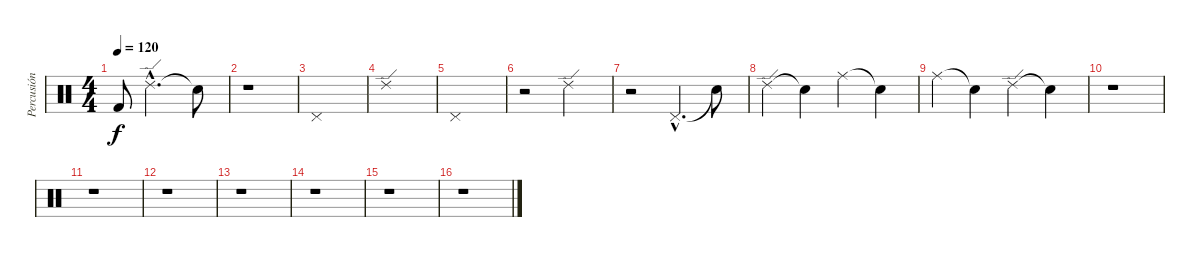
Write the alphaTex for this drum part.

\track ("Percusión" "Percusión") {instrument percussion}
\staff {score}
\articulation defaults
\ts (4 4)
\tempo 120
\clef neutral
\ks c "Kick (hit) 2".8{dy f} "Ride (edge) 2"{hac}.2{d} "Snare (hit)"{t}.8
|
r.1 |
"Pedal Hi-Hat (hit)".1 |
"Ride (edge) 2".1 |
"Pedal Hi-Hat (hit)".1 |
r.2 "Ride (edge) 2".2 |
r.2 "Pedal Hi-Hat (hit)"{hac}.4{d} "Snare (hit)"{t}.8 |
"Ride (edge) 2".4 "Snare (hit)"{t}.4 "Ride (middle)".4 "Snare (hit)"{t}.4 |
"Ride (middle)".4 "Snare (hit)"{t}.4 "Ride (edge) 2".4 "Snare (hit)"{t}.4 |
r.1 |
r.1 |
r.1 |
r.1 |
r.1 |
r.1 |
r.1
